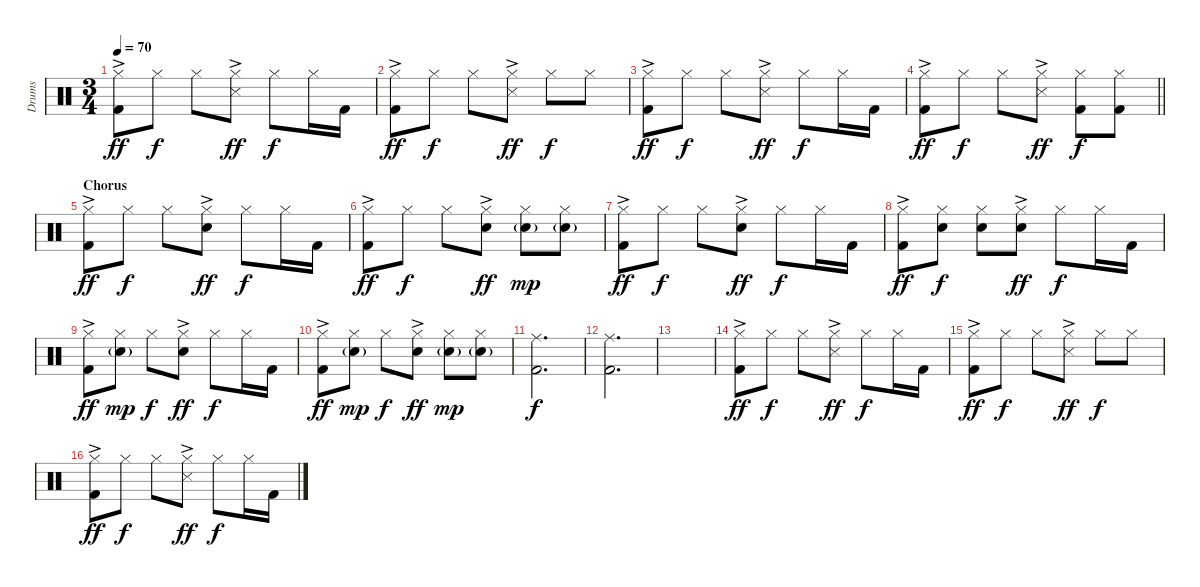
\track ("Drums" "Drums") {instrument percussion}
\staff {score}
\articulation defaults
\ts (3 4)
\tempo 70
\clef neutral
\ks c
("Hi-Hat (closed)" "Kick (hit) 2"{ac}).8{dy ff} "Hi-Hat (closed)".8{dy f} "Hi-Hat (closed)".8 ("Hi-Hat (closed)" "Snare (side stick) 3"{ac}).8{dy ff} "Hi-Hat (closed)".8{dy f} "Hi-Hat (closed)".16 "Kick (hit) 2".16 |
("Hi-Hat (closed)" "Kick (hit) 2"{ac}).8{dy ff} "Hi-Hat (closed)".8{dy f} "Hi-Hat (closed)".8 ("Hi-Hat (closed)" "Snare (side stick) 3"{ac}).8{dy ff} "Hi-Hat (closed)".8{dy f} "Hi-Hat (closed)".8 |
("Hi-Hat (closed)" "Kick (hit) 2"{ac}).8{dy ff} "Hi-Hat (closed)".8{dy f} "Hi-Hat (closed)".8 ("Hi-Hat (closed)" "Snare (side stick) 3"{ac}).8{dy ff} "Hi-Hat (closed)".8{dy f} "Hi-Hat (closed)".16 "Kick (hit) 2".16 |
\barLineRight lightlight
("Hi-Hat (closed)" "Kick (hit) 2"{ac}).8{dy ff} "Hi-Hat (closed)".8{dy f} "Hi-Hat (closed)".8 ("Hi-Hat (closed)" "Snare (side stick) 3"{ac}).8{dy ff} ("Hi-Hat (closed)" "Kick (hit) 2").8{dy f} ("Hi-Hat (closed)" "Kick (hit) 2").8 |
\section ("" "Chorus")
("Hi-Hat (closed)" "Kick (hit) 2"{ac}).8{dy ff} "Hi-Hat (closed)".8{dy f} "Hi-Hat (closed)".8 ("Hi-Hat (closed)" "Snare (hit) 2"{ac}).8{dy ff} "Hi-Hat (closed)".8{dy f} "Hi-Hat (closed)".16 "Kick (hit) 2".16 |
("Hi-Hat (closed)" "Kick (hit) 2"{ac}).8{dy ff} "Hi-Hat (closed)".8{dy f} "Hi-Hat (closed)".8 ("Hi-Hat (closed)" "Snare (hit) 2"{ac}).8{dy ff} ("Hi-Hat (closed)" "Snare (hit) 2"{g}).8{dy mp} ("Hi-Hat (closed)" "Snare (hit) 2"{g}).8 |
("Hi-Hat (closed)" "Kick (hit) 2"{ac}).8{dy ff} "Hi-Hat (closed)".8{dy f} "Hi-Hat (closed)".8 ("Hi-Hat (closed)" "Snare (hit) 2"{ac}).8{dy ff} "Hi-Hat (closed)".8{dy f} "Hi-Hat (closed)".16 "Kick (hit) 2".16 |
("Hi-Hat (closed)" "Kick (hit) 2"{ac}).8{dy ff} ("Hi-Hat (closed)" "Snare (hit) 2").8{dy f} ("Hi-Hat (closed)" "Snare (hit) 2").8 ("Hi-Hat (closed)" "Snare (hit) 2"{ac}).8{dy ff} "Hi-Hat (closed)".8{dy f} "Hi-Hat (closed)".16 "Kick (hit) 2".16 |
("Hi-Hat (closed)" "Kick (hit) 2"{ac}).8{dy ff} ("Hi-Hat (closed)" "Snare (hit) 2"{g}).8{dy mp} "Hi-Hat (closed)".8{dy f} ("Hi-Hat (closed)" "Snare (hit) 2"{ac}).8{dy ff} "Hi-Hat (closed)".8{dy f} "Hi-Hat (closed)".16 "Kick (hit) 2".16 |
("Hi-Hat (closed)" "Kick (hit) 2"{ac}).8{dy ff} ("Hi-Hat (closed)" "Snare (hit) 2"{g}).8{dy mp} "Hi-Hat (closed)".8{dy f} ("Hi-Hat (closed)" "Snare (hit) 2"{ac}).8{dy ff} ("Hi-Hat (closed)" "Snare (hit) 2"{g}).8{dy mp} ("Hi-Hat (closed)" "Snare (hit) 2"{g}).8 |
("Ride (middle)" "Kick (hit) 2").2{d dy f} |
("Ride (middle)" "Kick (hit) 2").2{d} |
|
("Hi-Hat (closed)" "Kick (hit) 2"{ac}).8{dy ff} "Hi-Hat (closed)".8{dy f} "Hi-Hat (closed)".8 ("Hi-Hat (closed)" "Snare (side stick) 3"{ac}).8{dy ff} "Hi-Hat (closed)".8{dy f} "Hi-Hat (closed)".16 "Kick (hit) 2".16 |
("Hi-Hat (closed)" "Kick (hit) 2"{ac}).8{dy ff} "Hi-Hat (closed)".8{dy f} "Hi-Hat (closed)".8 ("Hi-Hat (closed)" "Snare (side stick) 3"{ac}).8{dy ff} "Hi-Hat (closed)".8{dy f} "Hi-Hat (closed)".8 |
("Hi-Hat (closed)" "Kick (hit) 2"{ac}).8{dy ff} "Hi-Hat (closed)".8{dy f} "Hi-Hat (closed)".8 ("Hi-Hat (closed)" "Snare (side stick) 3"{ac}).8{dy ff} "Hi-Hat (closed)".8{dy f} "Hi-Hat (closed)".16 "Kick (hit) 2".16
